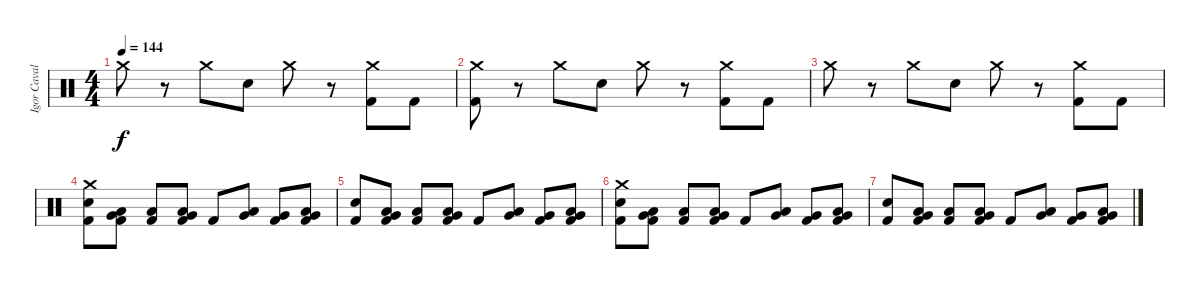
\track ("Igor Cavalera" "Igor Caval") {instrument percussion}
\staff {score}
\articulation defaults
\ts (4 4)
\tempo 144
\clef neutral
\ks c "Crash medium (hit)".8{dy f}
r.8 "Crash medium (hit)".8 "Snare (hit) 2".8 "Crash medium (hit)".8 r.8 ("Crash medium (hit)" "Kick (hit) 2").8 "Kick (hit) 2".8 |
("Crash medium (hit)" "Kick (hit) 2").8 r.8 "Crash medium (hit)".8 "Snare (hit) 2".8 "Crash medium (hit)".8 r.8 ("Crash medium (hit)" "Kick (hit) 2").8 "Kick (hit) 2".8 |
"Crash medium (hit)".8 r.8 "Crash medium (hit)".8 "Snare (hit) 2".8 "Crash medium (hit)".8 r.8 ("Crash medium (hit)" "Kick (hit) 2").8 "Kick (hit) 2".8 |
("Snare (hit) 2" "Kick (hit) 2" "Crash medium (hit)").8 ("Kick (hit) 2" "Low Floor Tom (hit)" "Very Low Tom (hit)").8 ("Kick (hit) 2" "Low Floor Tom (hit)").8 ("Kick (hit) 2" "Low Floor Tom (hit)" "Very Low Tom (hit)").8 "Kick (hit) 2".8 ("Low Tom (hit)" "Very Low Tom (hit)").8 ("Very Low Tom (hit)" "Kick (hit) 2").8 ("Kick (hit) 2" "Very Low Tom (hit)" "Low Floor Tom (hit)").8 |
("Snare (hit) 2" "Kick (hit) 2").8 ("Kick (hit) 2" "Low Floor Tom (hit)" "Very Low Tom (hit)").8 ("Kick (hit) 2" "Low Floor Tom (hit)").8 ("Kick (hit) 2" "Low Floor Tom (hit)" "Very Low Tom (hit)").8 "Kick (hit) 2".8 ("Low Tom (hit)" "Very Low Tom (hit)").8 ("Very Low Tom (hit)" "Kick (hit) 2").8 ("Kick (hit) 2" "Very Low Tom (hit)" "Low Floor Tom (hit)").8 |
("Snare (hit) 2" "Kick (hit) 2" "Crash medium (hit)").8 ("Kick (hit) 2" "Low Floor Tom (hit)" "Very Low Tom (hit)").8 ("Kick (hit) 2" "Low Floor Tom (hit)").8 ("Kick (hit) 2" "Low Floor Tom (hit)" "Very Low Tom (hit)").8 "Kick (hit) 2".8 ("Low Tom (hit)" "Very Low Tom (hit)").8 ("Very Low Tom (hit)" "Kick (hit) 2").8 ("Kick (hit) 2" "Very Low Tom (hit)" "Low Floor Tom (hit)").8 |
("Snare (hit) 2" "Kick (hit) 2").8 ("Kick (hit) 2" "Low Floor Tom (hit)" "Very Low Tom (hit)").8 ("Kick (hit) 2" "Low Floor Tom (hit)").8 ("Kick (hit) 2" "Low Floor Tom (hit)" "Very Low Tom (hit)").8 "Kick (hit) 2".8 ("Low Tom (hit)" "Very Low Tom (hit)").8 ("Very Low Tom (hit)" "Kick (hit) 2").8 ("Kick (hit) 2" "Very Low Tom (hit)" "Low Floor Tom (hit)").8
